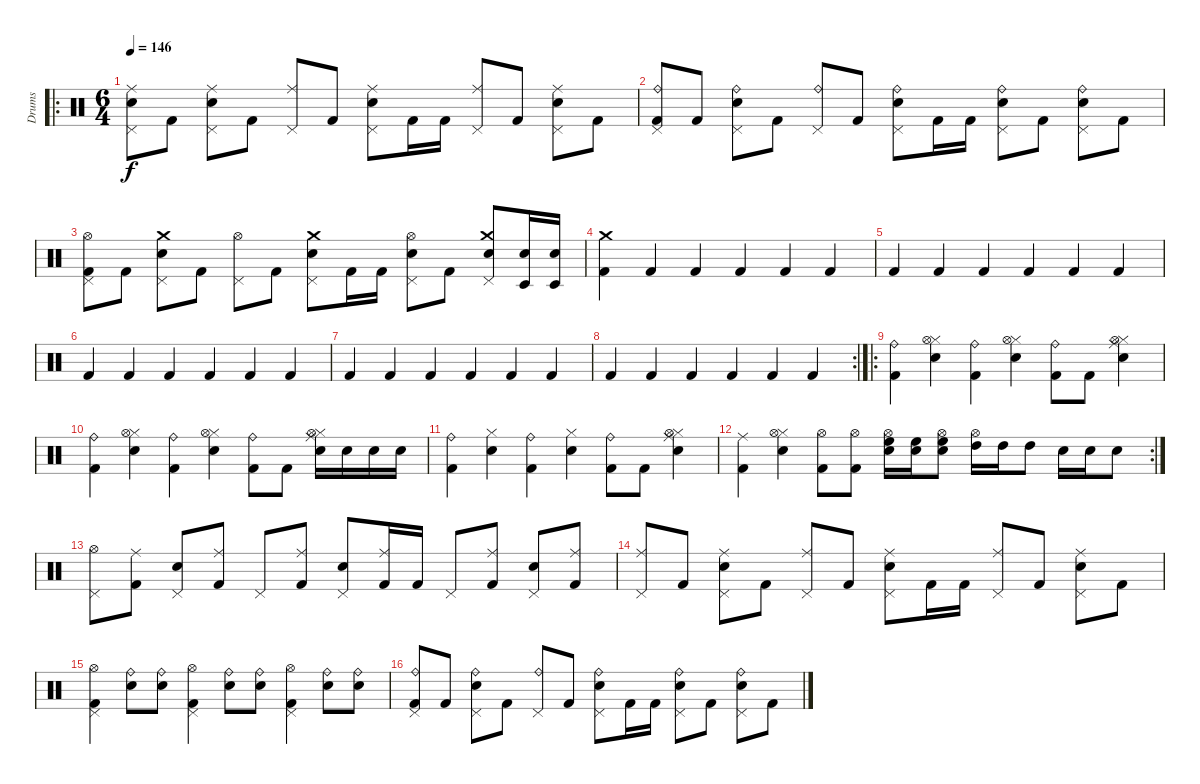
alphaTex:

\track ("Drums" "Drums") {instrument percussion}
\staff {score}
\articulation defaults
\ro
\ts (6 4)
\tempo 146
\clef neutral
\ks c
("Electric Snare (hit)" "Pedal Hi-Hat (hit)" "Ride (middle)").8{dy f} "Kick (hit) 2".8 ("Pedal Hi-Hat (hit)" "Electric Snare (hit)" "Ride (middle)").8 "Kick (hit) 2".8 ("Pedal Hi-Hat (hit)" "Ride (middle)").8 "Kick (hit) 2".8 ("Pedal Hi-Hat (hit)" "Electric Snare (hit)" "Ride (middle)").8 "Kick (hit) 2".16 "Kick (hit) 2".16 ("Pedal Hi-Hat (hit)" "Ride (middle)").8 "Kick (hit) 2".8 ("Pedal Hi-Hat (hit)" "Electric Snare (hit)" "Ride (middle)").8 "Kick (hit) 2".8 |
("Pedal Hi-Hat (hit)" "Ride (bell)" "Kick (hit) 2").8 "Kick (hit) 2".8 ("Pedal Hi-Hat (hit)" "Electric Snare (hit)" "Ride (bell)").8 "Kick (hit) 2".8 ("Pedal Hi-Hat (hit)" "Ride (bell)").8 "Kick (hit) 2".8 ("Pedal Hi-Hat (hit)" "Electric Snare (hit)" "Ride (bell)").8 "Kick (hit) 2".16 "Kick (hit) 2".16 ("Pedal Hi-Hat (hit)" "Electric Snare (hit)" "Ride (bell)").8 "Kick (hit) 2".8 ("Pedal Hi-Hat (hit)" "Electric Snare (hit)" "Ride (bell)").8 "Kick (hit) 2".8 |
("Pedal Hi-Hat (hit)" "Hi-Hat (open)" "Kick (hit) 2").8 "Kick (hit) 2".8 ("Pedal Hi-Hat (hit)" "Electric Snare (hit)" "Crash medium (hit)").8 "Kick (hit) 2".8 ("Pedal Hi-Hat (hit)" "Hi-Hat (open)").8 "Kick (hit) 2".8 ("Pedal Hi-Hat (hit)" "Electric Snare (hit)" "Crash medium (hit)").8 "Kick (hit) 2".16 "Kick (hit) 2".16 ("Pedal Hi-Hat (hit)" "Electric Snare (hit)" "Hi-Hat (open)").8 "Kick (hit) 2".8 ("Pedal Hi-Hat (hit)" "Electric Snare (hit)" "Crash medium (hit)").8 ("Electric Snare (hit)" "Timbale low (hit)").16 ("Electric Snare (hit)" "Timbale low (hit)").16 |
("Crash medium (hit)" "Kick (hit) 2").4 "Kick (hit) 2".4 "Kick (hit) 2".4 "Kick (hit) 2".4 "Kick (hit) 2".4 "Kick (hit) 2".4 |
"Kick (hit) 2".4 "Kick (hit) 2".4 "Kick (hit) 2".4 "Kick (hit) 2".4 "Kick (hit) 2".4 "Kick (hit) 2".4 |
"Kick (hit) 2".4 "Kick (hit) 2".4 "Kick (hit) 2".4 "Kick (hit) 2".4 "Kick (hit) 2".4 "Kick (hit) 2".4 |
"Kick (hit) 2".4 "Kick (hit) 2".4 "Kick (hit) 2".4 "Kick (hit) 2".4 "Kick (hit) 2".4 "Kick (hit) 2".4 |
\rc 2 "Kick (hit) 2".4 "Kick (hit) 2".4 "Kick (hit) 2".4 "Kick (hit) 2".4 "Kick (hit) 2".4 "Kick (hit) 2".4
|
\ro
("Ride (bell)" "Kick (hit) 2").4 ("Hi-Hat (closed)" "Electric Snare (hit)" "Hi-Hat (open)").4 ("Ride (bell)" "Kick (hit) 2").4 ("Hi-Hat (closed)" "Hi-Hat (open)" "Electric Snare (hit)").4 ("Ride (bell)" "Kick (hit) 2").8 "Kick (hit) 2".8 ("Hi-Hat (closed)" "Hi-Hat (open)" "Electric Snare (hit)" "Ride (middle)").4 |
("Ride (bell)" "Kick (hit) 2").4 ("Hi-Hat (closed)" "Electric Snare (hit)" "Hi-Hat (open)").4 ("Ride (bell)" "Kick (hit) 2").4 ("Hi-Hat (closed)" "Electric Snare (hit)" "Hi-Hat (open)").4 ("Ride (bell)" "Kick (hit) 2").8 "Kick (hit) 2".8 ("Hi-Hat (closed)" "Hi-Hat (open)" "Electric Snare (hit)" "Ride (middle)").16 "Electric Snare (hit)".16 "Electric Snare (hit)".16 "Electric Snare (hit)".16 |
("Ride (bell)" "Kick (hit) 2").4 ("Hi-Hat (closed)" "Electric Snare (hit)").4 ("Ride (bell)" "Kick (hit) 2").4 ("Hi-Hat (closed)" "Electric Snare (hit)").4 ("Ride (bell)" "Kick (hit) 2").8 "Kick (hit) 2".8 ("Hi-Hat (closed)" "Hi-Hat (open)" "Electric Snare (hit)" "Ride (middle)").4 |
\rc 2
("Ride (middle)" "Kick (hit) 2").4 ("Hi-Hat (closed)" "Electric Snare (hit)" "Hi-Hat (open)").4 ("Hi-Hat (open)" "Kick (hit) 2").8 ("Hi-Hat (open)" "Kick (hit) 2").8 ("Hi-Hat (open)" "High Floor Tom (hit)" "Electric Snare (hit)").16 ("High Floor Tom (hit)" "Electric Snare (hit)").16 ("Hi-Hat (open)" "High Floor Tom (hit)" "Electric Snare (hit)").8 ("Hi-Hat (open)" "High Tom (hit)").16 "High Tom (hit)".16 "High Tom (hit)".8 "Electric Snare (hit)".16 "Electric Snare (hit)".16 "Electric Snare (hit)".8 |
("Pedal Hi-Hat (hit)" "Hi-Hat (open)").8 ("Ride (middle)" "Kick (hit) 2").8 ("Pedal Hi-Hat (hit)" "Electric Snare (hit)").8 ("Ride (middle)" "Kick (hit) 2").8 "Pedal Hi-Hat (hit)".8 ("Ride (middle)" "Kick (hit) 2").8 ("Pedal Hi-Hat (hit)" "Electric Snare (hit)").8 ("Ride (middle)" "Kick (hit) 2").16 "Kick (hit) 2".16 "Pedal Hi-Hat (hit)".8 ("Ride (middle)" "Kick (hit) 2").8 ("Pedal Hi-Hat (hit)" "Electric Snare (hit)").8 ("Ride (middle)" "Kick (hit) 2").8 |
("Pedal Hi-Hat (hit)" "Ride (middle)").8 "Kick (hit) 2".8 ("Pedal Hi-Hat (hit)" "Electric Snare (hit)" "Ride (middle)").8 "Kick (hit) 2".8 ("Pedal Hi-Hat (hit)" "Ride (middle)").8 "Kick (hit) 2".8 ("Pedal Hi-Hat (hit)" "Electric Snare (hit)" "Ride (middle)").8 "Kick (hit) 2".16 "Kick (hit) 2".16 ("Pedal Hi-Hat (hit)" "Ride (middle)").8 "Kick (hit) 2".8 ("Pedal Hi-Hat (hit)" "Electric Snare (hit)" "Ride (middle)").8 "Kick (hit) 2".8 |
("Pedal Hi-Hat (hit)" "Kick (hit) 2" "Hi-Hat (open)").4 ("Ride (bell)" "Electric Snare (hit)").8 ("Ride (bell)" "Electric Snare (hit)").8 ("Pedal Hi-Hat (hit)" "Kick (hit) 2" "Hi-Hat (open)").4 ("Ride (bell)" "Electric Snare (hit)").8 ("Ride (bell)" "Electric Snare (hit)").8 ("Pedal Hi-Hat (hit)" "Kick (hit) 2" "Hi-Hat (open)").4 ("Ride (bell)" "Electric Snare (hit)").8 ("Ride (bell)" "Electric Snare (hit)").8 |
("Pedal Hi-Hat (hit)" "Ride (bell)" "Kick (hit) 2").8 "Kick (hit) 2".8 ("Pedal Hi-Hat (hit)" "Electric Snare (hit)" "Ride (bell)").8 "Kick (hit) 2".8 ("Pedal Hi-Hat (hit)" "Ride (bell)").8 "Kick (hit) 2".8 ("Pedal Hi-Hat (hit)" "Electric Snare (hit)" "Ride (bell)").8 "Kick (hit) 2".16 "Kick (hit) 2".16 ("Pedal Hi-Hat (hit)" "Electric Snare (hit)" "Ride (bell)").8 "Kick (hit) 2".8 ("Pedal Hi-Hat (hit)" "Electric Snare (hit)" "Ride (bell)").8 "Kick (hit) 2".8
